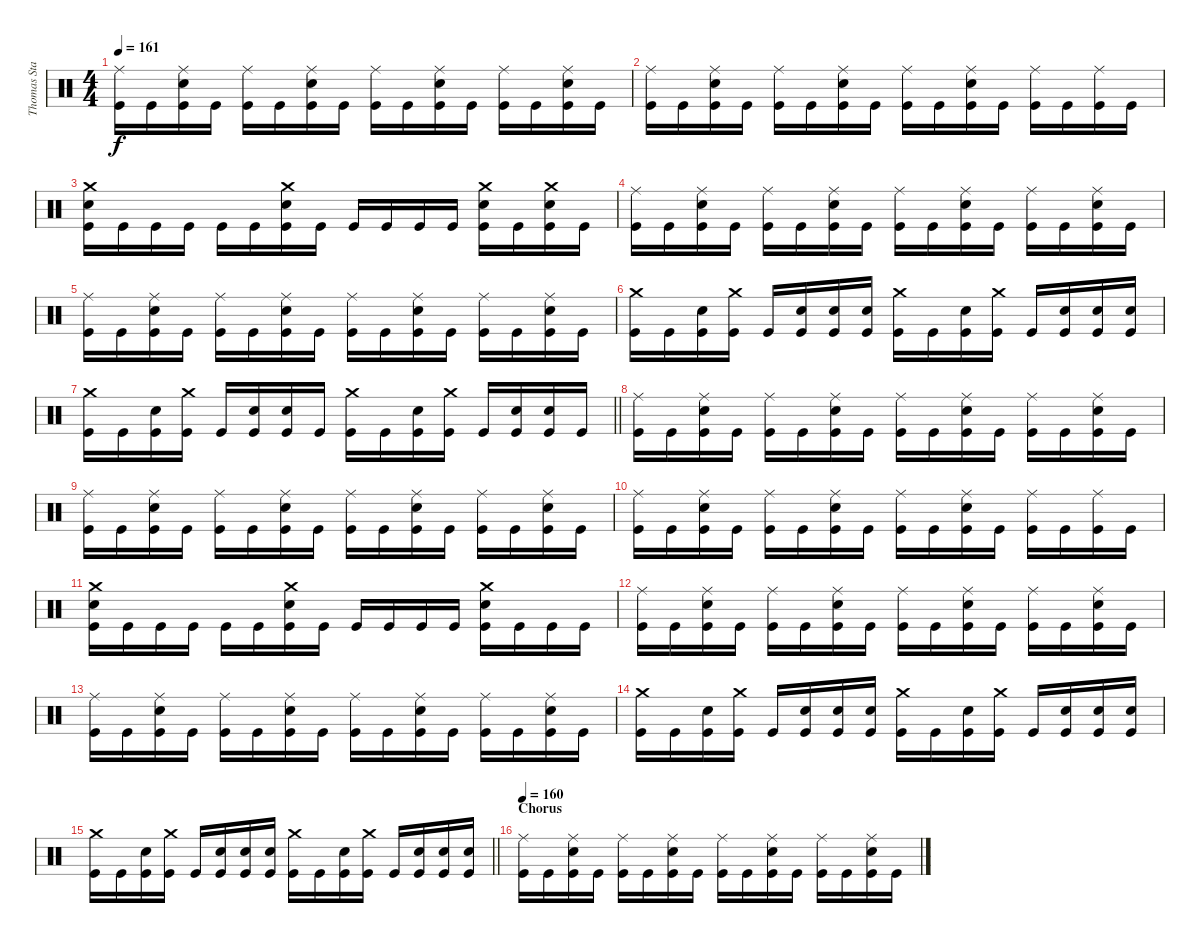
\track ("Thomas Stauch" "Thomas Sta") {instrument percussion}
\staff {score}
\articulation defaults
\ts (4 4)
\tempo 161
\clef neutral
\ks c
("Ride (middle)" "Kick (hit)").16{dy f} "Kick (hit)".16 ("Ride (middle)" "Electric Snare (hit)" "Kick (hit)").16 "Kick (hit)".16 ("Ride (middle)" "Kick (hit)").16 "Kick (hit)".16 ("Ride (middle)" "Electric Snare (hit)" "Kick (hit)").16 "Kick (hit)".16 ("Ride (middle)" "Kick (hit)").16 "Kick (hit)".16 ("Ride (middle)" "Electric Snare (hit)" "Kick (hit)").16 "Kick (hit)".16 ("Ride (middle)" "Kick (hit)").16 "Kick (hit)".16 ("Ride (middle)" "Electric Snare (hit)" "Kick (hit)").16 "Kick (hit)".16 |
("Ride (middle)" "Kick (hit)").16 "Kick (hit)".16 ("Ride (middle)" "Electric Snare (hit)" "Kick (hit)").16 "Kick (hit)".16 ("Ride (middle)" "Kick (hit)").16 "Kick (hit)".16 ("Ride (middle)" "Electric Snare (hit)" "Kick (hit)").16 "Kick (hit)".16 ("Ride (middle)" "Kick (hit)").16 "Kick (hit)".16 ("Ride (middle)" "Electric Snare (hit)" "Kick (hit)").16 "Kick (hit)".16 ("Ride (middle)" "Kick (hit)").16 "Kick (hit)".16 ("Ride (middle)" "Kick (hit)").16 "Kick (hit)".16 |
("Crash medium (hit)" "Electric Snare (hit)" "Kick (hit)").16 "Kick (hit)".16 "Kick (hit)".16 "Kick (hit)".16 "Kick (hit)".16 "Kick (hit)".16 ("Crash medium (hit)" "Electric Snare (hit)" "Kick (hit)").16 "Kick (hit)".16 "Kick (hit)".16 "Kick (hit)".16 "Kick (hit)".16 "Kick (hit)".16 ("Crash medium (hit)" "Electric Snare (hit)" "Kick (hit)").16 "Kick (hit)".16 ("Crash medium (hit)" "Electric Snare (hit)" "Kick (hit)").16 "Kick (hit)".16 |
("Ride (middle)" "Kick (hit)").16 "Kick (hit)".16 ("Ride (middle)" "Electric Snare (hit)" "Kick (hit)").16 "Kick (hit)".16 ("Ride (middle)" "Kick (hit)").16 "Kick (hit)".16 ("Ride (middle)" "Electric Snare (hit)" "Kick (hit)").16 "Kick (hit)".16 ("Ride (middle)" "Kick (hit)").16 "Kick (hit)".16 ("Ride (middle)" "Electric Snare (hit)" "Kick (hit)").16 "Kick (hit)".16 ("Ride (middle)" "Kick (hit)").16 "Kick (hit)".16 ("Ride (middle)" "Electric Snare (hit)" "Kick (hit)").16 "Kick (hit)".16 |
("Ride (middle)" "Kick (hit)").16 "Kick (hit)".16 ("Ride (middle)" "Electric Snare (hit)" "Kick (hit)").16 "Kick (hit)".16 ("Ride (middle)" "Kick (hit)").16 "Kick (hit)".16 ("Ride (middle)" "Electric Snare (hit)" "Kick (hit)").16 "Kick (hit)".16 ("Ride (middle)" "Kick (hit)").16 "Kick (hit)".16 ("Ride (middle)" "Electric Snare (hit)" "Kick (hit)").16 "Kick (hit)".16 ("Ride (middle)" "Kick (hit)").16 "Kick (hit)".16 ("Ride (middle)" "Electric Snare (hit)" "Kick (hit)").16 "Kick (hit)".16 |
("Crash medium (hit)" "Kick (hit)").16 "Kick (hit)".16 ("Electric Snare (hit)" "Kick (hit)").16 ("Crash medium (hit)" "Kick (hit)").16 "Kick (hit)".16 ("Electric Snare (hit)" "Kick (hit)").16 ("Electric Snare (hit)" "Kick (hit)").16 ("Electric Snare (hit)" "Kick (hit)").16 ("Crash medium (hit)" "Kick (hit)").16 "Kick (hit)".16 ("Electric Snare (hit)" "Kick (hit)").16 ("Crash medium (hit)" "Kick (hit)").16 "Kick (hit)".16 ("Electric Snare (hit)" "Kick (hit)").16 ("Electric Snare (hit)" "Kick (hit)").16 ("Electric Snare (hit)" "Kick (hit)").16 |
\barLineRight lightlight
("Crash medium (hit)" "Kick (hit)").16 "Kick (hit)".16 ("Electric Snare (hit)" "Kick (hit)").16 ("Crash medium (hit)" "Kick (hit)").16 "Kick (hit)".16 ("Electric Snare (hit)" "Kick (hit)").16 ("Electric Snare (hit)" "Kick (hit)").16 "Kick (hit)".16 ("Crash medium (hit)" "Kick (hit)").16 "Kick (hit)".16 ("Electric Snare (hit)" "Kick (hit)").16 ("Crash medium (hit)" "Kick (hit)").16 "Kick (hit)".16 ("Electric Snare (hit)" "Kick (hit)").16 ("Electric Snare (hit)" "Kick (hit)").16 "Kick (hit)".16 |
("Ride (middle)" "Kick (hit)").16 "Kick (hit)".16 ("Ride (middle)" "Electric Snare (hit)" "Kick (hit)").16 "Kick (hit)".16 ("Ride (middle)" "Kick (hit)").16 "Kick (hit)".16 ("Ride (middle)" "Electric Snare (hit)" "Kick (hit)").16 "Kick (hit)".16 ("Ride (middle)" "Kick (hit)").16 "Kick (hit)".16 ("Ride (middle)" "Electric Snare (hit)" "Kick (hit)").16 "Kick (hit)".16 ("Ride (middle)" "Kick (hit)").16 "Kick (hit)".16 ("Ride (middle)" "Electric Snare (hit)" "Kick (hit)").16 "Kick (hit)".16 |
("Ride (middle)" "Kick (hit)").16 "Kick (hit)".16 ("Ride (middle)" "Electric Snare (hit)" "Kick (hit)").16 "Kick (hit)".16 ("Ride (middle)" "Kick (hit)").16 "Kick (hit)".16 ("Ride (middle)" "Electric Snare (hit)" "Kick (hit)").16 "Kick (hit)".16 ("Ride (middle)" "Kick (hit)").16 "Kick (hit)".16 ("Ride (middle)" "Electric Snare (hit)" "Kick (hit)").16 "Kick (hit)".16 ("Ride (middle)" "Kick (hit)").16 "Kick (hit)".16 ("Ride (middle)" "Electric Snare (hit)" "Kick (hit)").16 "Kick (hit)".16 |
("Ride (middle)" "Kick (hit)").16 "Kick (hit)".16 ("Ride (middle)" "Electric Snare (hit)" "Kick (hit)").16 "Kick (hit)".16 ("Ride (middle)" "Kick (hit)").16 "Kick (hit)".16 ("Ride (middle)" "Electric Snare (hit)" "Kick (hit)").16 "Kick (hit)".16 ("Ride (middle)" "Kick (hit)").16 "Kick (hit)".16 ("Ride (middle)" "Electric Snare (hit)" "Kick (hit)").16 "Kick (hit)".16 ("Ride (middle)" "Kick (hit)").16 "Kick (hit)".16 ("Ride (middle)" "Kick (hit)").16 "Kick (hit)".16 |
("Crash medium (hit)" "Electric Snare (hit)" "Kick (hit)").16 "Kick (hit)".16 "Kick (hit)".16 "Kick (hit)".16 "Kick (hit)".16 "Kick (hit)".16 ("Crash medium (hit)" "Electric Snare (hit)" "Kick (hit)").16 "Kick (hit)".16 "Kick (hit)".16 "Kick (hit)".16 "Kick (hit)".16 "Kick (hit)".16 ("Crash medium (hit)" "Electric Snare (hit)" "Kick (hit)").16 "Kick (hit)".16 "Kick (hit)".16 "Kick (hit)".16 |
("Ride (middle)" "Kick (hit)").16 "Kick (hit)".16 ("Ride (middle)" "Electric Snare (hit)" "Kick (hit)").16 "Kick (hit)".16 ("Ride (middle)" "Kick (hit)").16 "Kick (hit)".16 ("Ride (middle)" "Electric Snare (hit)" "Kick (hit)").16 "Kick (hit)".16 ("Ride (middle)" "Kick (hit)").16 "Kick (hit)".16 ("Ride (middle)" "Electric Snare (hit)" "Kick (hit)").16 "Kick (hit)".16 ("Ride (middle)" "Kick (hit)").16 "Kick (hit)".16 ("Ride (middle)" "Electric Snare (hit)" "Kick (hit)").16 "Kick (hit)".16 |
("Ride (middle)" "Kick (hit)").16 "Kick (hit)".16 ("Ride (middle)" "Electric Snare (hit)" "Kick (hit)").16 "Kick (hit)".16 ("Ride (middle)" "Kick (hit)").16 "Kick (hit)".16 ("Ride (middle)" "Electric Snare (hit)" "Kick (hit)").16 "Kick (hit)".16 ("Ride (middle)" "Kick (hit)").16 "Kick (hit)".16 ("Ride (middle)" "Electric Snare (hit)" "Kick (hit)").16 "Kick (hit)".16 ("Ride (middle)" "Kick (hit)").16 "Kick (hit)".16 ("Ride (middle)" "Electric Snare (hit)" "Kick (hit)").16 "Kick (hit)".16 |
("Crash medium (hit)" "Kick (hit)").16 "Kick (hit)".16 ("Electric Snare (hit)" "Kick (hit)").16 ("Crash medium (hit)" "Kick (hit)").16 "Kick (hit)".16 ("Electric Snare (hit)" "Kick (hit)").16 ("Electric Snare (hit)" "Kick (hit)").16 ("Electric Snare (hit)" "Kick (hit)").16 ("Crash medium (hit)" "Kick (hit)").16 "Kick (hit)".16 ("Electric Snare (hit)" "Kick (hit)").16 ("Crash medium (hit)" "Kick (hit)").16 "Kick (hit)".16 ("Electric Snare (hit)" "Kick (hit)").16 ("Electric Snare (hit)" "Kick (hit)").16 ("Electric Snare (hit)" "Kick (hit)").16 |
\barLineRight lightlight
("Crash medium (hit)" "Kick (hit)").16 "Kick (hit)".16 ("Electric Snare (hit)" "Kick (hit)").16 ("Crash medium (hit)" "Kick (hit)").16 "Kick (hit)".16 ("Electric Snare (hit)" "Kick (hit)").16 ("Electric Snare (hit)" "Kick (hit)").16 ("Electric Snare (hit)" "Kick (hit)").16 ("Crash medium (hit)" "Kick (hit)").16 "Kick (hit)".16 ("Electric Snare (hit)" "Kick (hit)").16 ("Crash medium (hit)" "Kick (hit)").16 "Kick (hit)".16 ("Electric Snare (hit)" "Kick (hit)").16 ("Electric Snare (hit)" "Kick (hit)").16 ("Electric Snare (hit)" "Kick (hit)").16 |
\section ("" "Chorus")
\tempo 160
("Ride (middle)" "Kick (hit)").16 "Kick (hit)".16 ("Ride (middle)" "Electric Snare (hit)" "Kick (hit)").16 "Kick (hit)".16 ("Ride (middle)" "Kick (hit)").16 "Kick (hit)".16 ("Ride (middle)" "Electric Snare (hit)" "Kick (hit)").16 "Kick (hit)".16 ("Ride (middle)" "Kick (hit)").16 "Kick (hit)".16 ("Ride (middle)" "Electric Snare (hit)" "Kick (hit)").16 "Kick (hit)".16 ("Ride (middle)" "Kick (hit)").16 "Kick (hit)".16 ("Ride (middle)" "Electric Snare (hit)" "Kick (hit)").16 "Kick (hit)".16
